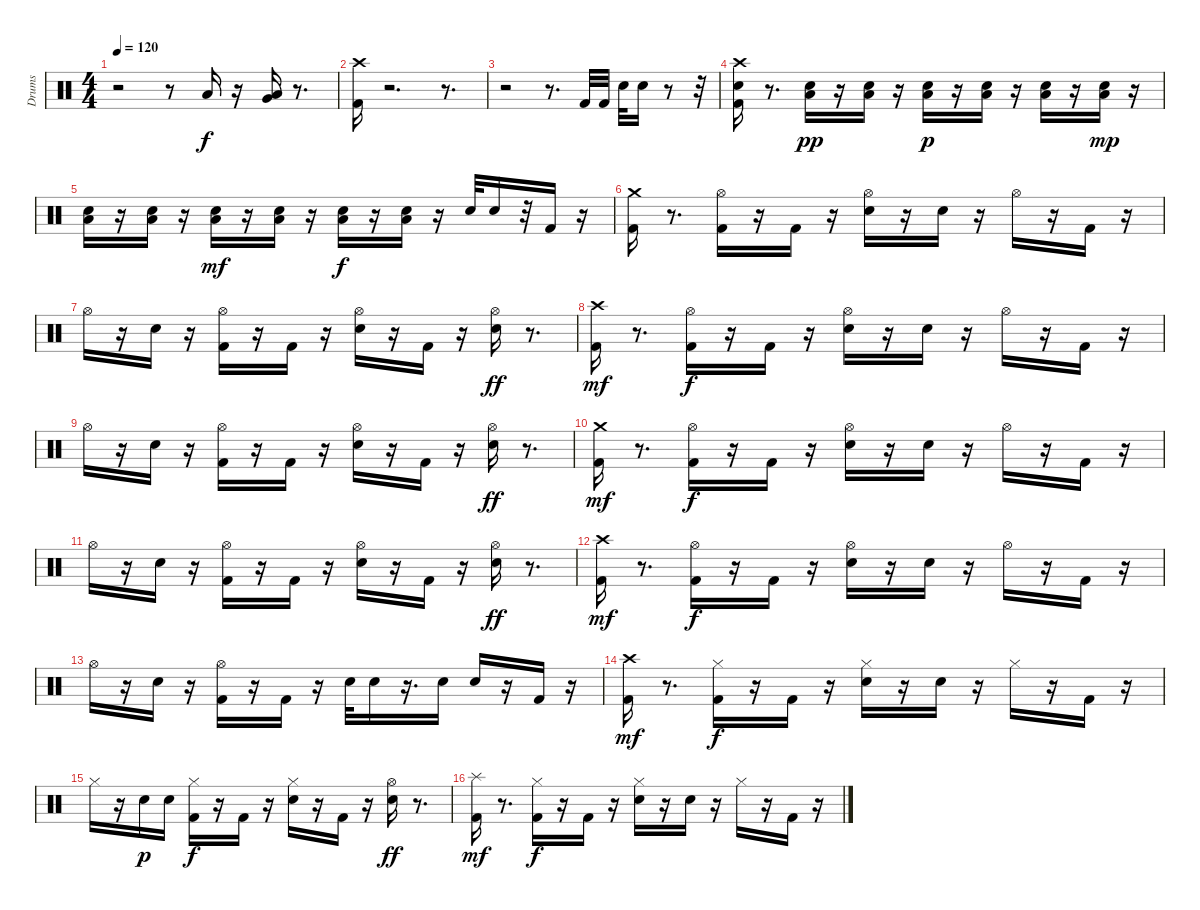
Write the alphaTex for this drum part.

\track ("Drums" "Drums") {instrument percussion}
\staff {score}
\articulation defaults
\ts (4 4)
\tempo 120
\clef neutral
\ks c
r.2{dy f} r.8 "Low Floor Tom (hit)".16 r.16 ("Very Low Tom (hit)" "Low Floor Tom (hit)").16 r.8{d} |
("Crash high (hit)" "Kick (hit) 2").16 r.2{d} r.8{d} |
r.2 r.8{d} "Kick (hit) 2".32 "Kick (hit) 2".32 "Snare (hit) 2".32 "Snare (hit) 2".16 r.8 r.32 |
("Kick (hit) 2" "Crash high (hit)" "Snare (hit) 2").16 r.8{d} ("Low Floor Tom (hit)" "Snare (hit) 2").16{dy pp} r.16 ("Low Floor Tom (hit)" "Snare (hit) 2").16 r.16 ("Low Floor Tom (hit)" "Snare (hit) 2").16{dy p} r.16 ("Low Floor Tom (hit)" "Snare (hit) 2").16 r.16 ("Low Floor Tom (hit)" "Snare (hit) 2").16 r.16 ("Low Floor Tom (hit)" "Snare (hit) 2").16{dy mp} r.16 |
("Low Floor Tom (hit)" "Snare (hit) 2").16 r.16 ("Low Floor Tom (hit)" "Snare (hit) 2").16 r.16 ("Low Floor Tom (hit)" "Snare (hit) 2").16{dy mf} r.16 ("Low Floor Tom (hit)" "Snare (hit) 2").16 r.16 ("Low Floor Tom (hit)" "Snare (hit) 2").16{dy f} r.16 ("Low Floor Tom (hit)" "Snare (hit) 2").16 r.16 "Snare (hit) 2".32 "Snare (hit) 2".16 r.32 "Kick (hit) 2".16 r.16 |
("Crash medium (hit)" "Kick (hit) 2").16 r.8{d} ("Hi-Hat (open)" "Kick (hit) 2").16 r.16 "Kick (hit) 2".16 r.16 ("Hi-Hat (open)" "Snare (hit) 2").16 r.16 "Snare (hit) 2".16 r.16 "Hi-Hat (open)".16 r.16 "Kick (hit) 2".16 r.16 |
"Hi-Hat (open)".16 r.16 "Snare (hit) 2".16 r.16 ("Hi-Hat (open)" "Kick (hit) 2").16 r.16 "Kick (hit) 2".16 r.16 ("Hi-Hat (open)" "Snare (hit) 2").16 r.16 "Kick (hit) 2".16 r.16 ("Hi-Hat (open)" "Snare (hit) 2").16{dy ff} r.8{d} |
("Crash high (hit)" "Kick (hit) 2").16{dy mf} r.8{d} ("Hi-Hat (open)" "Kick (hit) 2").16{dy f} r.16 "Kick (hit) 2".16 r.16 ("Hi-Hat (open)" "Snare (hit) 2").16 r.16 "Snare (hit) 2".16 r.16 "Hi-Hat (open)".16 r.16 "Kick (hit) 2".16 r.16 |
"Hi-Hat (open)".16 r.16 "Snare (hit) 2".16 r.16 ("Hi-Hat (open)" "Kick (hit) 2").16 r.16 "Kick (hit) 2".16 r.16 ("Hi-Hat (open)" "Snare (hit) 2").16 r.16 "Kick (hit) 2".16 r.16 ("Hi-Hat (open)" "Snare (hit) 2").16{dy ff} r.8{d} |
("Crash medium (hit)" "Kick (hit) 2").16{dy mf} r.8{d} ("Hi-Hat (open)" "Kick (hit) 2").16{dy f} r.16 "Kick (hit) 2".16 r.16 ("Hi-Hat (open)" "Snare (hit) 2").16 r.16 "Snare (hit) 2".16 r.16 "Hi-Hat (open)".16 r.16 "Kick (hit) 2".16 r.16 |
"Hi-Hat (open)".16 r.16 "Snare (hit) 2".16 r.16 ("Hi-Hat (open)" "Kick (hit) 2").16 r.16 "Kick (hit) 2".16 r.16 ("Hi-Hat (open)" "Snare (hit) 2").16 r.16 "Kick (hit) 2".16 r.16 ("Hi-Hat (open)" "Snare (hit) 2").16{dy ff} r.8{d} |
("Crash high (hit)" "Kick (hit) 2").16{dy mf} r.8{d} ("Hi-Hat (open)" "Kick (hit) 2").16{dy f} r.16 "Kick (hit) 2".16 r.16 ("Hi-Hat (open)" "Snare (hit) 2").16 r.16 "Snare (hit) 2".16 r.16 "Hi-Hat (open)".16 r.16 "Kick (hit) 2".16 r.16 |
"Hi-Hat (open)".16 r.16 "Snare (hit) 2".16 r.16 ("Hi-Hat (open)" "Kick (hit) 2").16 r.16 "Kick (hit) 2".16 r.16 "Snare (hit) 2".32 "Snare (hit) 2".16 r.16{d} "Snare (hit) 2".16 "Snare (hit) 2".16 r.16 "Kick (hit) 2".16 r.16 |
("Crash high (hit)" "Kick (hit) 2").16{dy mf} r.8{d} ("Hi-Hat (closed)" "Kick (hit) 2").16{dy f} r.16 "Kick (hit) 2".16 r.16 ("Hi-Hat (closed)" "Snare (hit) 2").16 r.16 "Snare (hit) 2".16 r.16 "Hi-Hat (closed)".16 r.16 "Kick (hit) 2".16 r.16 |
"Hi-Hat (closed)".16 r.16 "Snare (hit) 2".16{dy p} "Snare (hit) 2".16 ("Hi-Hat (closed)" "Kick (hit) 2").16{dy f} r.16 "Kick (hit) 2".16 r.16 ("Hi-Hat (closed)" "Snare (hit) 2").16 r.16 "Kick (hit) 2".16 r.16 ("Hi-Hat (open)" "Snare (hit) 2").16{dy ff} r.8{d} |
("Splash (hit)" "Kick (hit) 2").16{dy mf} r.8{d} ("Hi-Hat (closed)" "Kick (hit) 2").16{dy f} r.16 "Kick (hit) 2".16 r.16 ("Hi-Hat (closed)" "Snare (hit) 2").16 r.16 "Snare (hit) 2".16 r.16 "Hi-Hat (closed)".16 r.16 "Kick (hit) 2".16 r.16
